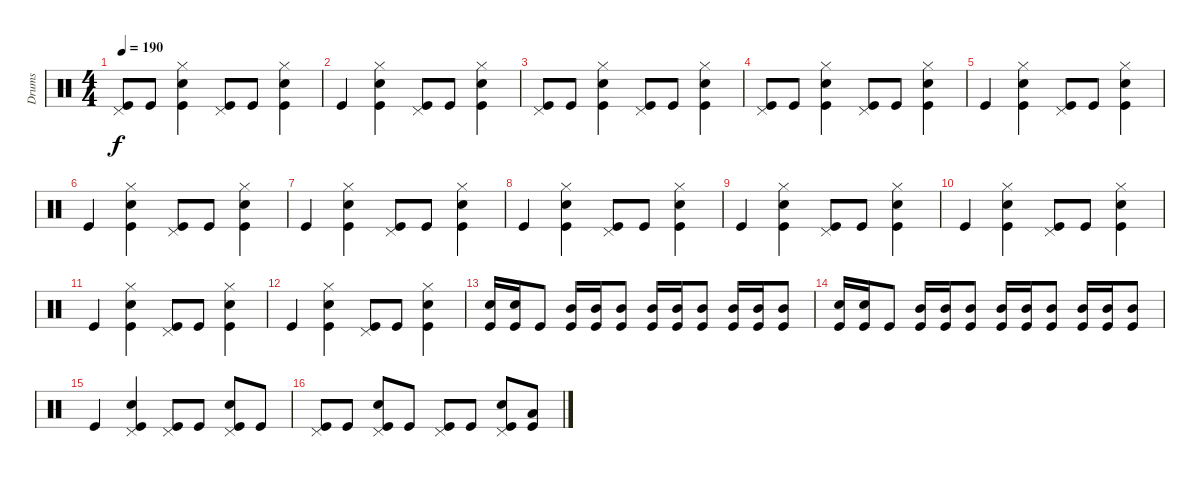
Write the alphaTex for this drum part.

\track ("Drums" "Drums") {instrument percussion}
\staff {score}
\articulation defaults
\ts (4 4)
\tempo 190
\clef neutral
\ks c
("Kick (hit)" "Pedal Hi-Hat (hit)").8{dy f} "Kick (hit)".8 ("Snare (hit) 2" "Kick (hit)" "Hi-Hat (closed)").4 ("Kick (hit)" "Pedal Hi-Hat (hit)").8 "Kick (hit)".8 ("Snare (hit) 2" "Kick (hit)" "Hi-Hat (closed)").4 |
"Kick (hit)".4 ("Snare (hit) 2" "Kick (hit)" "Hi-Hat (closed)").4 ("Kick (hit)" "Pedal Hi-Hat (hit)").8 "Kick (hit)".8 ("Snare (hit) 2" "Kick (hit)" "Hi-Hat (closed)").4 |
("Kick (hit)" "Pedal Hi-Hat (hit)").8 "Kick (hit)".8 ("Snare (hit) 2" "Kick (hit)" "Hi-Hat (closed)").4 ("Kick (hit)" "Pedal Hi-Hat (hit)").8 "Kick (hit)".8 ("Snare (hit) 2" "Kick (hit)" "Hi-Hat (closed)").4 |
("Kick (hit)" "Pedal Hi-Hat (hit)").8 "Kick (hit)".8 ("Snare (hit) 2" "Kick (hit)" "Hi-Hat (closed)").4 ("Kick (hit)" "Pedal Hi-Hat (hit)").8 "Kick (hit)".8 ("Snare (hit) 2" "Kick (hit)" "Hi-Hat (closed)").4 |
"Kick (hit)".4 ("Snare (hit) 2" "Kick (hit)" "Hi-Hat (closed)").4 ("Kick (hit)" "Pedal Hi-Hat (hit)").8 "Kick (hit)".8 ("Snare (hit) 2" "Kick (hit)" "Hi-Hat (closed)").4 |
"Kick (hit)".4 ("Snare (hit) 2" "Kick (hit)" "Hi-Hat (closed)").4 ("Kick (hit)" "Pedal Hi-Hat (hit)").8 "Kick (hit)".8 ("Snare (hit) 2" "Kick (hit)" "Hi-Hat (closed)").4 |
"Kick (hit)".4 ("Snare (hit) 2" "Kick (hit)" "Hi-Hat (closed)").4 ("Kick (hit)" "Pedal Hi-Hat (hit)").8 "Kick (hit)".8 ("Snare (hit) 2" "Kick (hit)" "Hi-Hat (closed)").4 |
"Kick (hit)".4 ("Snare (hit) 2" "Kick (hit)" "Hi-Hat (closed)").4 ("Kick (hit)" "Pedal Hi-Hat (hit)").8 "Kick (hit)".8 ("Snare (hit) 2" "Kick (hit)" "Hi-Hat (closed)").4 |
"Kick (hit)".4 ("Snare (hit) 2" "Kick (hit)" "Hi-Hat (closed)").4 ("Kick (hit)" "Pedal Hi-Hat (hit)").8 "Kick (hit)".8 ("Snare (hit) 2" "Kick (hit)" "Hi-Hat (closed)").4 |
"Kick (hit)".4 ("Snare (hit) 2" "Kick (hit)" "Hi-Hat (closed)").4 ("Kick (hit)" "Pedal Hi-Hat (hit)").8 "Kick (hit)".8 ("Snare (hit) 2" "Kick (hit)" "Hi-Hat (closed)").4 |
"Kick (hit)".4 ("Snare (hit) 2" "Kick (hit)" "Hi-Hat (closed)").4 ("Kick (hit)" "Pedal Hi-Hat (hit)").8 "Kick (hit)".8 ("Snare (hit) 2" "Kick (hit)" "Hi-Hat (closed)").4 |
"Kick (hit)".4 ("Snare (hit) 2" "Kick (hit)" "Hi-Hat (closed)").4 ("Kick (hit)" "Pedal Hi-Hat (hit)").8 "Kick (hit)".8 ("Snare (hit) 2" "Kick (hit)" "Hi-Hat (closed)").4 |
("Snare (hit) 2" "Kick (hit)").16 ("Snare (hit) 2" "Kick (hit)").16 "Kick (hit)".8 ("Mid Tom (hit)" "Kick (hit)").16 ("Mid Tom (hit)" "Kick (hit)").16 ("Mid Tom (hit)" "Kick (hit)").8 ("Mid Tom (hit)" "Kick (hit)").16 ("Mid Tom (hit)" "Kick (hit)").16 ("Mid Tom (hit)" "Kick (hit)").8 ("Mid Tom (hit)" "Kick (hit)").16 ("Mid Tom (hit)" "Kick (hit)").16 ("Mid Tom (hit)" "Kick (hit)").8 |
("Snare (hit) 2" "Kick (hit)").16 ("Snare (hit) 2" "Kick (hit)").16 "Kick (hit)".8 ("Mid Tom (hit)" "Kick (hit)").16 ("Mid Tom (hit)" "Kick (hit)").16 ("Mid Tom (hit)" "Kick (hit)").8 ("Mid Tom (hit)" "Kick (hit)").16 ("Mid Tom (hit)" "Kick (hit)").16 ("Mid Tom (hit)" "Kick (hit)").8 ("Mid Tom (hit)" "Kick (hit)").16 ("Mid Tom (hit)" "Kick (hit)").16 ("Mid Tom (hit)" "Kick (hit)").8 |
"Kick (hit)".4 ("Snare (hit) 2" "Kick (hit)" "Pedal Hi-Hat (hit)").4 ("Kick (hit)" "Pedal Hi-Hat (hit)").8 "Kick (hit)".8 ("Snare (hit) 2" "Kick (hit)" "Pedal Hi-Hat (hit)").8 "Kick (hit)".8 |
("Kick (hit)" "Pedal Hi-Hat (hit)").8 "Kick (hit)".8 ("Snare (hit) 2" "Kick (hit)" "Pedal Hi-Hat (hit)").8 "Kick (hit)".8 ("Kick (hit)" "Pedal Hi-Hat (hit)").8 "Kick (hit)".8 ("Snare (hit) 2" "Kick (hit)" "Pedal Hi-Hat (hit)").8 ("Low Tom (hit)" "Kick (hit)").8
